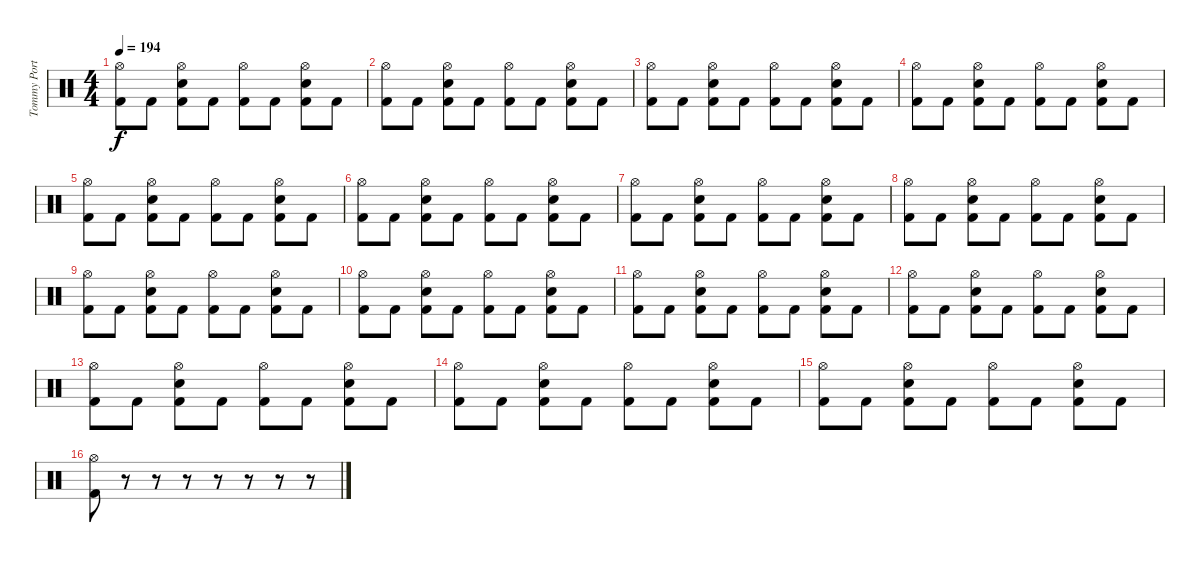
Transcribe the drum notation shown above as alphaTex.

\track ("Tommy Portino" "Tommy Port") {instrument percussion}
\staff {score}
\articulation defaults
\ts (4 4)
\tempo 194
\clef neutral
\ks c
("Hi-Hat (open)" "Kick (hit) 2").8{dy f} "Kick (hit) 2".8 ("Hi-Hat (open)" "Snare (hit) 2" "Kick (hit) 2").8 "Kick (hit) 2".8 ("Hi-Hat (open)" "Kick (hit) 2").8 "Kick (hit) 2".8 ("Hi-Hat (open)" "Snare (hit) 2" "Kick (hit) 2").8 "Kick (hit) 2".8 |
("Hi-Hat (open)" "Kick (hit) 2").8 "Kick (hit) 2".8 ("Hi-Hat (open)" "Snare (hit) 2" "Kick (hit) 2").8 "Kick (hit) 2".8 ("Hi-Hat (open)" "Kick (hit) 2").8 "Kick (hit) 2".8 ("Hi-Hat (open)" "Snare (hit) 2" "Kick (hit) 2").8 "Kick (hit) 2".8 |
("Hi-Hat (open)" "Kick (hit) 2").8 "Kick (hit) 2".8 ("Hi-Hat (open)" "Snare (hit) 2" "Kick (hit) 2").8 "Kick (hit) 2".8 ("Hi-Hat (open)" "Kick (hit) 2").8 "Kick (hit) 2".8 ("Hi-Hat (open)" "Snare (hit) 2" "Kick (hit) 2").8 "Kick (hit) 2".8 |
("Hi-Hat (open)" "Kick (hit) 2").8 "Kick (hit) 2".8 ("Hi-Hat (open)" "Snare (hit) 2" "Kick (hit) 2").8 "Kick (hit) 2".8 ("Hi-Hat (open)" "Kick (hit) 2").8 "Kick (hit) 2".8 ("Hi-Hat (open)" "Snare (hit) 2" "Kick (hit) 2").8 "Kick (hit) 2".8 |
("Hi-Hat (open)" "Kick (hit) 2").8 "Kick (hit) 2".8 ("Hi-Hat (open)" "Snare (hit) 2" "Kick (hit) 2").8 "Kick (hit) 2".8 ("Hi-Hat (open)" "Kick (hit) 2").8 "Kick (hit) 2".8 ("Hi-Hat (open)" "Snare (hit) 2" "Kick (hit) 2").8 "Kick (hit) 2".8 |
("Hi-Hat (open)" "Kick (hit) 2").8 "Kick (hit) 2".8 ("Hi-Hat (open)" "Snare (hit) 2" "Kick (hit) 2").8 "Kick (hit) 2".8 ("Hi-Hat (open)" "Kick (hit) 2").8 "Kick (hit) 2".8 ("Hi-Hat (open)" "Snare (hit) 2" "Kick (hit) 2").8 "Kick (hit) 2".8 |
("Hi-Hat (open)" "Kick (hit) 2").8 "Kick (hit) 2".8 ("Hi-Hat (open)" "Snare (hit) 2" "Kick (hit) 2").8 "Kick (hit) 2".8 ("Hi-Hat (open)" "Kick (hit) 2").8 "Kick (hit) 2".8 ("Hi-Hat (open)" "Snare (hit) 2" "Kick (hit) 2").8 "Kick (hit) 2".8 |
("Hi-Hat (open)" "Kick (hit) 2").8 "Kick (hit) 2".8 ("Hi-Hat (open)" "Snare (hit) 2" "Kick (hit) 2").8 "Kick (hit) 2".8 ("Hi-Hat (open)" "Kick (hit) 2").8 "Kick (hit) 2".8 ("Hi-Hat (open)" "Snare (hit) 2" "Kick (hit) 2").8 "Kick (hit) 2".8 |
("Hi-Hat (open)" "Kick (hit) 2").8 "Kick (hit) 2".8 ("Hi-Hat (open)" "Snare (hit) 2" "Kick (hit) 2").8 "Kick (hit) 2".8 ("Hi-Hat (open)" "Kick (hit) 2").8 "Kick (hit) 2".8 ("Hi-Hat (open)" "Snare (hit) 2" "Kick (hit) 2").8 "Kick (hit) 2".8 |
("Hi-Hat (open)" "Kick (hit) 2").8 "Kick (hit) 2".8 ("Hi-Hat (open)" "Snare (hit) 2" "Kick (hit) 2").8 "Kick (hit) 2".8 ("Hi-Hat (open)" "Kick (hit) 2").8 "Kick (hit) 2".8 ("Hi-Hat (open)" "Snare (hit) 2" "Kick (hit) 2").8 "Kick (hit) 2".8 |
("Hi-Hat (open)" "Kick (hit) 2").8 "Kick (hit) 2".8 ("Hi-Hat (open)" "Snare (hit) 2" "Kick (hit) 2").8 "Kick (hit) 2".8 ("Hi-Hat (open)" "Kick (hit) 2").8 "Kick (hit) 2".8 ("Hi-Hat (open)" "Snare (hit) 2" "Kick (hit) 2").8 "Kick (hit) 2".8 |
("Hi-Hat (open)" "Kick (hit) 2").8 "Kick (hit) 2".8 ("Hi-Hat (open)" "Snare (hit) 2" "Kick (hit) 2").8 "Kick (hit) 2".8 ("Hi-Hat (open)" "Kick (hit) 2").8 "Kick (hit) 2".8 ("Hi-Hat (open)" "Snare (hit) 2" "Kick (hit) 2").8 "Kick (hit) 2".8 |
("Hi-Hat (open)" "Kick (hit) 2").8 "Kick (hit) 2".8 ("Hi-Hat (open)" "Snare (hit) 2" "Kick (hit) 2").8 "Kick (hit) 2".8 ("Hi-Hat (open)" "Kick (hit) 2").8 "Kick (hit) 2".8 ("Hi-Hat (open)" "Snare (hit) 2" "Kick (hit) 2").8 "Kick (hit) 2".8 |
("Hi-Hat (open)" "Kick (hit) 2").8 "Kick (hit) 2".8 ("Hi-Hat (open)" "Snare (hit) 2" "Kick (hit) 2").8 "Kick (hit) 2".8 ("Hi-Hat (open)" "Kick (hit) 2").8 "Kick (hit) 2".8 ("Hi-Hat (open)" "Snare (hit) 2" "Kick (hit) 2").8 "Kick (hit) 2".8 |
("Hi-Hat (open)" "Kick (hit) 2").8 "Kick (hit) 2".8 ("Hi-Hat (open)" "Snare (hit) 2" "Kick (hit) 2").8 "Kick (hit) 2".8 ("Hi-Hat (open)" "Kick (hit) 2").8 "Kick (hit) 2".8 ("Hi-Hat (open)" "Snare (hit) 2" "Kick (hit) 2").8 "Kick (hit) 2".8 |
("Hi-Hat (open)" "Kick (hit) 2").8 r.8 r.8 r.8 r.8 r.8 r.8 r.8
